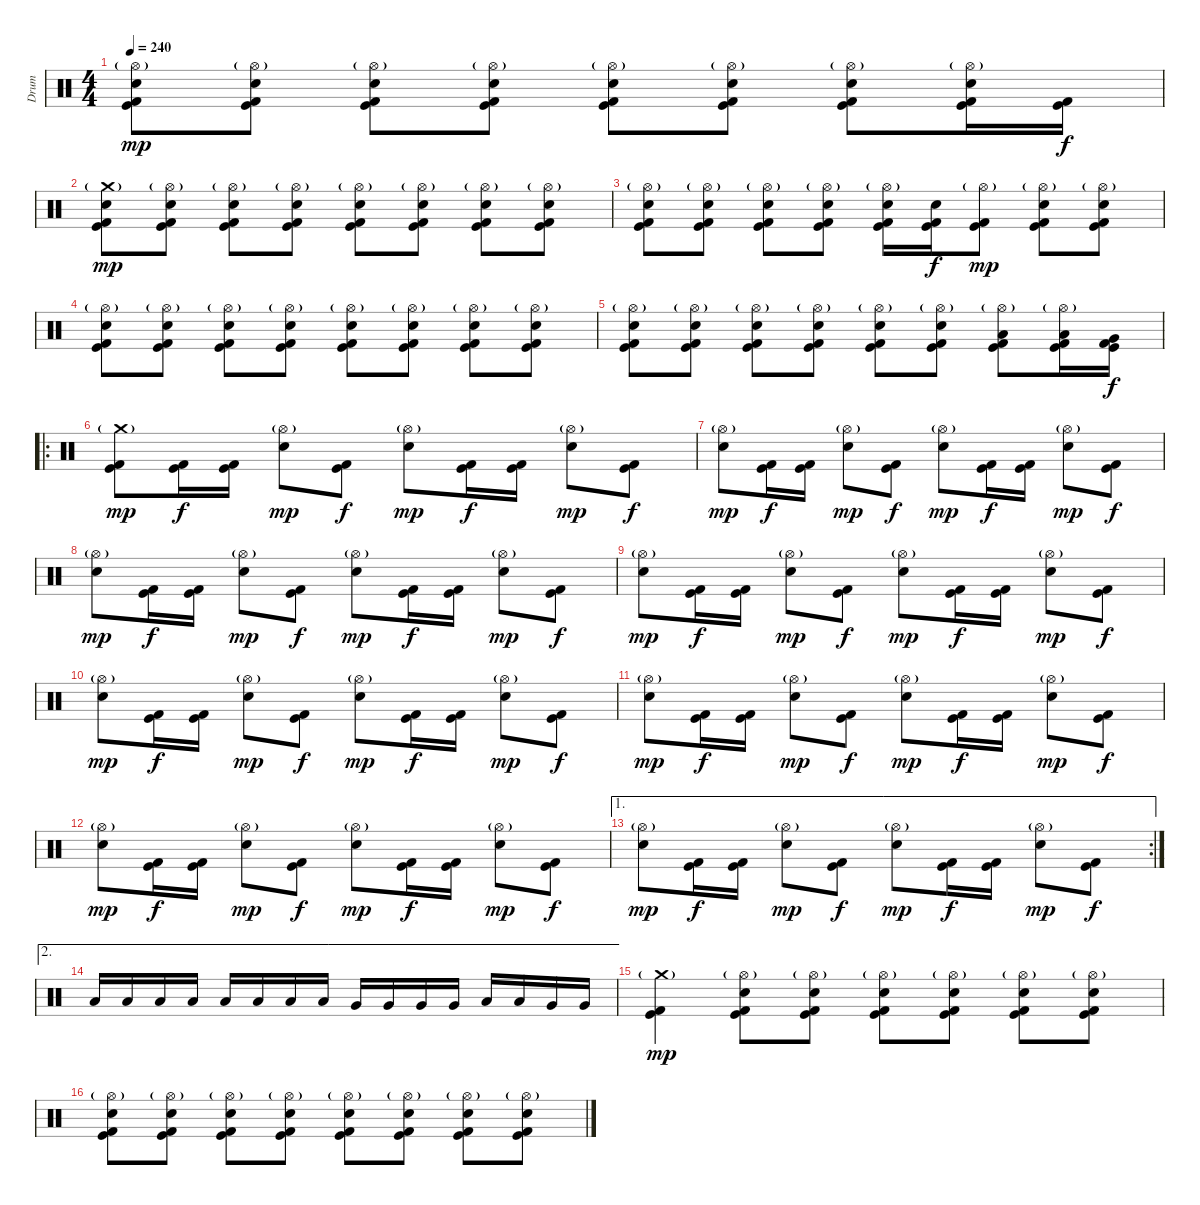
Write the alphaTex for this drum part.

\track ("Drum" "Drum") {instrument percussion}
\staff {score}
\articulation defaults
\ts (4 4)
\tempo 240
\clef neutral
\ks c
("Hi-Hat (open)"{g} "Electric Snare (hit)" "Kick (hit)" "Kick (hit) 2").8{dy mp} ("Hi-Hat (open)"{g} "Electric Snare (hit)" "Kick (hit)" "Kick (hit) 2").8 ("Hi-Hat (open)"{g} "Electric Snare (hit)" "Kick (hit)" "Kick (hit) 2").8 ("Hi-Hat (open)"{g} "Electric Snare (hit)" "Kick (hit)" "Kick (hit) 2").8 ("Hi-Hat (open)"{g} "Electric Snare (hit)" "Kick (hit)" "Kick (hit) 2").8 ("Hi-Hat (open)"{g} "Electric Snare (hit)" "Kick (hit)" "Kick (hit) 2").8 ("Hi-Hat (open)"{g} "Electric Snare (hit)" "Kick (hit)" "Kick (hit) 2").8 ("Hi-Hat (open)"{g} "Electric Snare (hit)" "Kick (hit)" "Kick (hit) 2").16 ("Kick (hit)" "Kick (hit) 2").16{dy f} |
("Crash medium (hit)"{g} "Electric Snare (hit)" "Kick (hit)" "Kick (hit) 2").8{dy mp} ("Hi-Hat (open)"{g} "Electric Snare (hit)" "Kick (hit)" "Kick (hit) 2").8 ("Hi-Hat (open)"{g} "Electric Snare (hit)" "Kick (hit)" "Kick (hit) 2").8 ("Hi-Hat (open)"{g} "Electric Snare (hit)" "Kick (hit)" "Kick (hit) 2").8 ("Hi-Hat (open)"{g} "Electric Snare (hit)" "Kick (hit)" "Kick (hit) 2").8 ("Hi-Hat (open)"{g} "Electric Snare (hit)" "Kick (hit)" "Kick (hit) 2").8 ("Hi-Hat (open)"{g} "Electric Snare (hit)" "Kick (hit)" "Kick (hit) 2").8 ("Hi-Hat (open)"{g} "Electric Snare (hit)" "Kick (hit)" "Kick (hit) 2").8 |
("Hi-Hat (open)"{g} "Electric Snare (hit)" "Kick (hit)" "Kick (hit) 2").8 ("Hi-Hat (open)"{g} "Electric Snare (hit)" "Kick (hit)" "Kick (hit) 2").8 ("Hi-Hat (open)"{g} "Electric Snare (hit)" "Kick (hit)" "Kick (hit) 2").8 ("Hi-Hat (open)"{g} "Electric Snare (hit)" "Kick (hit)" "Kick (hit) 2").8 ("Hi-Hat (open)"{g} "Electric Snare (hit)" "Kick (hit)" "Kick (hit) 2").16 ("Electric Snare (hit)" "Kick (hit)" "Kick (hit) 2").16{dy f} ("Hi-Hat (open)"{g} "Kick (hit)" "Kick (hit) 2").8{dy mp} ("Hi-Hat (open)"{g} "Electric Snare (hit)" "Kick (hit)" "Kick (hit) 2").8 ("Hi-Hat (open)"{g} "Electric Snare (hit)" "Kick (hit)" "Kick (hit) 2").8 |
("Hi-Hat (open)"{g} "Electric Snare (hit)" "Kick (hit)" "Kick (hit) 2").8 ("Hi-Hat (open)"{g} "Electric Snare (hit)" "Kick (hit)" "Kick (hit) 2").8 ("Hi-Hat (open)"{g} "Electric Snare (hit)" "Kick (hit)" "Kick (hit) 2").8 ("Hi-Hat (open)"{g} "Electric Snare (hit)" "Kick (hit)" "Kick (hit) 2").8 ("Hi-Hat (open)"{g} "Electric Snare (hit)" "Kick (hit)" "Kick (hit) 2").8 ("Hi-Hat (open)"{g} "Electric Snare (hit)" "Kick (hit)" "Kick (hit) 2").8 ("Hi-Hat (open)"{g} "Electric Snare (hit)" "Kick (hit)" "Kick (hit) 2").8 ("Hi-Hat (open)"{g} "Electric Snare (hit)" "Kick (hit)" "Kick (hit) 2").8 |
("Hi-Hat (open)"{g} "Electric Snare (hit)" "Kick (hit)" "Kick (hit) 2").8 ("Hi-Hat (open)"{g} "Electric Snare (hit)" "Kick (hit)" "Kick (hit) 2").8 ("Hi-Hat (open)"{g} "Electric Snare (hit)" "Kick (hit)" "Kick (hit) 2").8 ("Hi-Hat (open)"{g} "Electric Snare (hit)" "Kick (hit)" "Kick (hit) 2").8 ("Hi-Hat (open)"{g} "Electric Snare (hit)" "Kick (hit)" "Kick (hit) 2").8 ("Hi-Hat (open)"{g} "Electric Snare (hit)" "Kick (hit)" "Kick (hit) 2").8 ("Hi-Hat (open)"{g} "Low Tom (hit)" "Kick (hit)" "Kick (hit) 2").8 ("Hi-Hat (open)"{g} "Low Tom (hit)" "Kick (hit)" "Kick (hit) 2").16 ("Very Low Tom (hit)" "Kick (hit)" "Kick (hit) 2").16{dy f} |
\ro
("Crash medium (hit)"{g} "Kick (hit)" "Kick (hit) 2").8{dy mp} ("Kick (hit)" "Kick (hit) 2").16{dy f} ("Kick (hit)" "Kick (hit) 2").16 ("Hi-Hat (open)"{g} "Electric Snare (hit)").8{dy mp} ("Kick (hit)" "Kick (hit) 2").8{dy f} ("Hi-Hat (open)"{g} "Electric Snare (hit)").8{dy mp} ("Kick (hit)" "Kick (hit) 2").16{dy f} ("Kick (hit)" "Kick (hit) 2").16 ("Hi-Hat (open)"{g} "Electric Snare (hit)").8{dy mp} ("Kick (hit)" "Kick (hit) 2").8{dy f} |
("Hi-Hat (open)"{g} "Electric Snare (hit)").8{dy mp} ("Kick (hit)" "Kick (hit) 2").16{dy f} ("Kick (hit)" "Kick (hit) 2").16 ("Hi-Hat (open)"{g} "Electric Snare (hit)").8{dy mp} ("Kick (hit)" "Kick (hit) 2").8{dy f} ("Hi-Hat (open)"{g} "Electric Snare (hit)").8{dy mp} ("Kick (hit)" "Kick (hit) 2").16{dy f} ("Kick (hit)" "Kick (hit) 2").16 ("Hi-Hat (open)"{g} "Electric Snare (hit)").8{dy mp} ("Kick (hit)" "Kick (hit) 2").8{dy f} |
("Hi-Hat (open)"{g} "Electric Snare (hit)").8{dy mp} ("Kick (hit)" "Kick (hit) 2").16{dy f} ("Kick (hit)" "Kick (hit) 2").16 ("Hi-Hat (open)"{g} "Electric Snare (hit)").8{dy mp} ("Kick (hit)" "Kick (hit) 2").8{dy f} ("Hi-Hat (open)"{g} "Electric Snare (hit)").8{dy mp} ("Kick (hit)" "Kick (hit) 2").16{dy f} ("Kick (hit)" "Kick (hit) 2").16 ("Hi-Hat (open)"{g} "Electric Snare (hit)").8{dy mp} ("Kick (hit)" "Kick (hit) 2").8{dy f} |
("Hi-Hat (open)"{g} "Electric Snare (hit)").8{dy mp} ("Kick (hit)" "Kick (hit) 2").16{dy f} ("Kick (hit)" "Kick (hit) 2").16 ("Hi-Hat (open)"{g} "Electric Snare (hit)").8{dy mp} ("Kick (hit)" "Kick (hit) 2").8{dy f} ("Hi-Hat (open)"{g} "Electric Snare (hit)").8{dy mp} ("Kick (hit)" "Kick (hit) 2").16{dy f} ("Kick (hit)" "Kick (hit) 2").16 ("Hi-Hat (open)"{g} "Electric Snare (hit)").8{dy mp} ("Kick (hit)" "Kick (hit) 2").8{dy f} |
("Hi-Hat (open)"{g} "Electric Snare (hit)").8{dy mp} ("Kick (hit)" "Kick (hit) 2").16{dy f} ("Kick (hit)" "Kick (hit) 2").16 ("Hi-Hat (open)"{g} "Electric Snare (hit)").8{dy mp} ("Kick (hit)" "Kick (hit) 2").8{dy f} ("Hi-Hat (open)"{g} "Electric Snare (hit)").8{dy mp} ("Kick (hit)" "Kick (hit) 2").16{dy f} ("Kick (hit)" "Kick (hit) 2").16 ("Hi-Hat (open)"{g} "Electric Snare (hit)").8{dy mp} ("Kick (hit)" "Kick (hit) 2").8{dy f} |
("Hi-Hat (open)"{g} "Electric Snare (hit)").8{dy mp} ("Kick (hit)" "Kick (hit) 2").16{dy f} ("Kick (hit)" "Kick (hit) 2").16 ("Hi-Hat (open)"{g} "Electric Snare (hit)").8{dy mp} ("Kick (hit)" "Kick (hit) 2").8{dy f} ("Hi-Hat (open)"{g} "Electric Snare (hit)").8{dy mp} ("Kick (hit)" "Kick (hit) 2").16{dy f} ("Kick (hit)" "Kick (hit) 2").16 ("Hi-Hat (open)"{g} "Electric Snare (hit)").8{dy mp} ("Kick (hit)" "Kick (hit) 2").8{dy f} |
("Hi-Hat (open)"{g} "Electric Snare (hit)").8{dy mp} ("Kick (hit)" "Kick (hit) 2").16{dy f} ("Kick (hit)" "Kick (hit) 2").16 ("Hi-Hat (open)"{g} "Electric Snare (hit)").8{dy mp} ("Kick (hit)" "Kick (hit) 2").8{dy f} ("Hi-Hat (open)"{g} "Electric Snare (hit)").8{dy mp} ("Kick (hit)" "Kick (hit) 2").16{dy f} ("Kick (hit)" "Kick (hit) 2").16 ("Hi-Hat (open)"{g} "Electric Snare (hit)").8{dy mp} ("Kick (hit)" "Kick (hit) 2").8{dy f} |
\ae 1
\rc 2
("Hi-Hat (open)"{g} "Electric Snare (hit)").8{dy mp} ("Kick (hit)" "Kick (hit) 2").16{dy f} ("Kick (hit)" "Kick (hit) 2").16 ("Hi-Hat (open)"{g} "Electric Snare (hit)").8{dy mp} ("Kick (hit)" "Kick (hit) 2").8{dy f} ("Hi-Hat (open)"{g} "Electric Snare (hit)").8{dy mp} ("Kick (hit)" "Kick (hit) 2").16{dy f} ("Kick (hit)" "Kick (hit) 2").16 ("Hi-Hat (open)"{g} "Electric Snare (hit)").8{dy mp} ("Kick (hit)" "Kick (hit) 2").8{dy f} |
\ae 2 "Low Tom (hit)".16 "Low Tom (hit)".16 "Low Tom (hit)".16 "Low Tom (hit)".16 "Low Floor Tom (hit)".16 "Low Floor Tom (hit)".16 "Low Floor Tom (hit)".16 "Low Floor Tom (hit)".16 "Very Low Tom (hit)".16 "Very Low Tom (hit)".16 "Very Low Tom (hit)".16 "Very Low Tom (hit)".16 "Low Tom (hit)".16 "Low Tom (hit)".16 "Very Low Tom (hit)".16 "Very Low Tom (hit)".16
|
("Crash medium (hit)"{g} "Kick (hit)" "Kick (hit) 2").4{dy mp} ("Hi-Hat (open)"{g} "Electric Snare (hit)" "Kick (hit)" "Kick (hit) 2").8 ("Hi-Hat (open)"{g} "Electric Snare (hit)" "Kick (hit)" "Kick (hit) 2").8 ("Hi-Hat (open)"{g} "Electric Snare (hit)" "Kick (hit)" "Kick (hit) 2").8 ("Hi-Hat (open)"{g} "Electric Snare (hit)" "Kick (hit)" "Kick (hit) 2").8 ("Hi-Hat (open)"{g} "Electric Snare (hit)" "Kick (hit)" "Kick (hit) 2").8 ("Hi-Hat (open)"{g} "Electric Snare (hit)" "Kick (hit)" "Kick (hit) 2").8 |
("Hi-Hat (open)"{g} "Electric Snare (hit)" "Kick (hit)" "Kick (hit) 2").8 ("Hi-Hat (open)"{g} "Electric Snare (hit)" "Kick (hit)" "Kick (hit) 2").8 ("Hi-Hat (open)"{g} "Electric Snare (hit)" "Kick (hit)" "Kick (hit) 2").8 ("Hi-Hat (open)"{g} "Electric Snare (hit)" "Kick (hit)" "Kick (hit) 2").8 ("Hi-Hat (open)"{g} "Electric Snare (hit)" "Kick (hit)" "Kick (hit) 2").8 ("Hi-Hat (open)"{g} "Electric Snare (hit)" "Kick (hit)" "Kick (hit) 2").8 ("Hi-Hat (open)"{g} "Electric Snare (hit)" "Kick (hit)" "Kick (hit) 2").8 ("Hi-Hat (open)"{g} "Electric Snare (hit)" "Kick (hit)" "Kick (hit) 2").8
